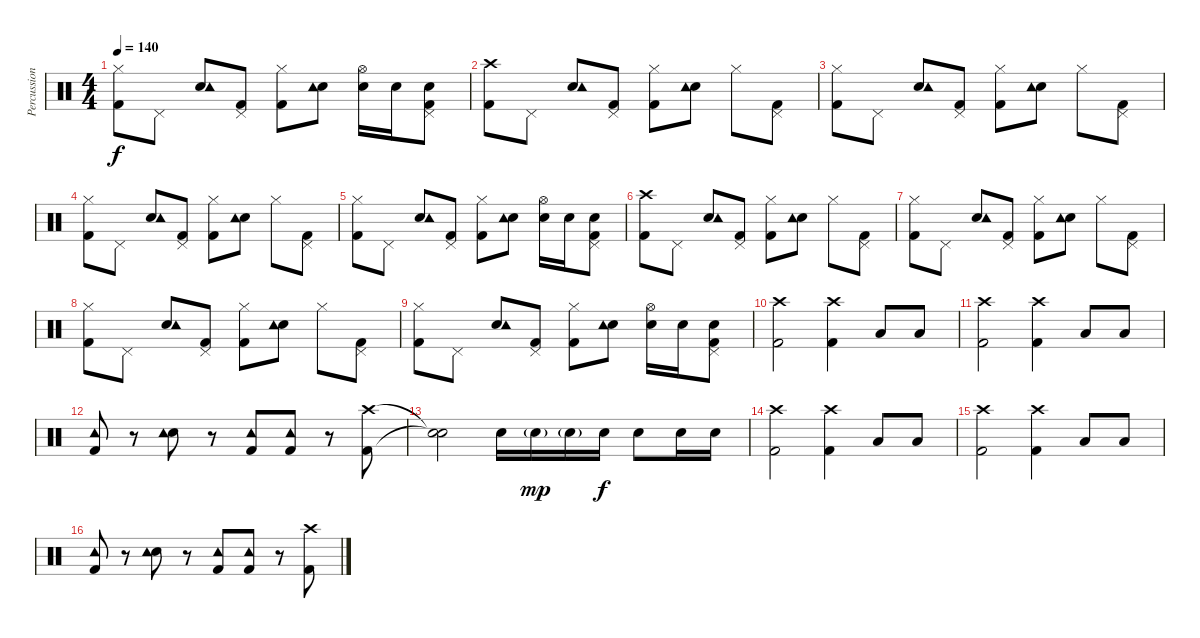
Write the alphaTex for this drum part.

\track ("Percussion" "Percussion") {instrument percussion}
\staff {score}
\articulation defaults
\ts (4 4)
\tempo 140
\clef neutral
\ks c
("Kick (hit) 2" "Hi-Hat (closed)").8{dy f} "Pedal Hi-Hat (hit)".8 ("Electric Snare (hit)" "Tambourine (hit)").8 ("Kick (hit) 2" "Pedal Hi-Hat (hit)").8 ("Kick (hit) 2" "Hi-Hat (closed)").8 ("Electric Snare (hit)" "Tambourine (hit)").8 ("Electric Snare (hit)" "Hi-Hat (open)").16 "Electric Snare (hit)".16 ("Kick (hit) 2" "Electric Snare (hit)" "Pedal Hi-Hat (hit)").8 |
("Kick (hit) 2" "Crash high (hit)").8 "Pedal Hi-Hat (hit)".8 ("Electric Snare (hit)" "Tambourine (hit)").8 ("Kick (hit) 2" "Pedal Hi-Hat (hit)").8 ("Kick (hit) 2" "Hi-Hat (closed)").8 ("Electric Snare (hit)" "Tambourine (hit)").8 "Hi-Hat (closed)".8 ("Kick (hit) 2" "Pedal Hi-Hat (hit)").8 |
("Kick (hit) 2" "Hi-Hat (closed)").8 "Pedal Hi-Hat (hit)".8 ("Electric Snare (hit)" "Tambourine (hit)").8 ("Kick (hit) 2" "Pedal Hi-Hat (hit)").8 ("Kick (hit) 2" "Hi-Hat (closed)").8 ("Electric Snare (hit)" "Tambourine (hit)").8 "Hi-Hat (closed)".8 ("Kick (hit) 2" "Pedal Hi-Hat (hit)").8 |
("Kick (hit) 2" "Hi-Hat (closed)").8 "Pedal Hi-Hat (hit)".8 ("Electric Snare (hit)" "Tambourine (hit)").8 ("Kick (hit) 2" "Pedal Hi-Hat (hit)").8 ("Kick (hit) 2" "Hi-Hat (closed)").8 ("Electric Snare (hit)" "Tambourine (hit)").8 "Hi-Hat (closed)".8 ("Kick (hit) 2" "Pedal Hi-Hat (hit)").8 |
("Kick (hit) 2" "Hi-Hat (closed)").8 "Pedal Hi-Hat (hit)".8 ("Electric Snare (hit)" "Tambourine (hit)").8 ("Kick (hit) 2" "Pedal Hi-Hat (hit)").8 ("Kick (hit) 2" "Hi-Hat (closed)").8 ("Electric Snare (hit)" "Tambourine (hit)").8 ("Electric Snare (hit)" "Hi-Hat (open)").16 "Electric Snare (hit)".16 ("Kick (hit) 2" "Electric Snare (hit)" "Pedal Hi-Hat (hit)").8 |
("Kick (hit) 2" "Crash high (hit)").8 "Pedal Hi-Hat (hit)".8 ("Electric Snare (hit)" "Tambourine (hit)").8 ("Kick (hit) 2" "Pedal Hi-Hat (hit)").8 ("Kick (hit) 2" "Hi-Hat (closed)").8 ("Electric Snare (hit)" "Tambourine (hit)").8 "Hi-Hat (closed)".8 ("Kick (hit) 2" "Pedal Hi-Hat (hit)").8 |
("Kick (hit) 2" "Hi-Hat (closed)").8 "Pedal Hi-Hat (hit)".8 ("Electric Snare (hit)" "Tambourine (hit)").8 ("Kick (hit) 2" "Pedal Hi-Hat (hit)").8 ("Kick (hit) 2" "Hi-Hat (closed)").8 ("Electric Snare (hit)" "Tambourine (hit)").8 "Hi-Hat (closed)".8 ("Kick (hit) 2" "Pedal Hi-Hat (hit)").8 |
("Kick (hit) 2" "Hi-Hat (closed)").8 "Pedal Hi-Hat (hit)".8 ("Electric Snare (hit)" "Tambourine (hit)").8 ("Kick (hit) 2" "Pedal Hi-Hat (hit)").8 ("Kick (hit) 2" "Hi-Hat (closed)").8 ("Electric Snare (hit)" "Tambourine (hit)").8 "Hi-Hat (closed)".8 ("Kick (hit) 2" "Pedal Hi-Hat (hit)").8 |
("Kick (hit) 2" "Hi-Hat (closed)").8 "Pedal Hi-Hat (hit)".8 ("Electric Snare (hit)" "Tambourine (hit)").8 ("Kick (hit) 2" "Pedal Hi-Hat (hit)").8 ("Kick (hit) 2" "Hi-Hat (closed)").8 ("Electric Snare (hit)" "Tambourine (hit)").8 ("Electric Snare (hit)" "Hi-Hat (open)").16 "Electric Snare (hit)".16 ("Kick (hit) 2" "Electric Snare (hit)" "Pedal Hi-Hat (hit)").8 |
("Kick (hit) 2" "Crash high (hit)").2 ("Kick (hit) 2" "Crash high (hit)").4 "Low Tom (hit)".8 "Low Tom (hit)".8 |
("Kick (hit) 2" "Crash high (hit)").2 ("Kick (hit) 2" "Crash high (hit)").4 "Low Floor Tom (hit)".8 "Low Tom (hit)".8 |
("Kick (hit) 2" "Tambourine (hit)").8 r.8 ("Electric Snare (hit)" "Tambourine (hit)").8 r.8 ("Kick (hit) 2" "Tambourine (hit)").8 ("Kick (hit) 2" "Tambourine (hit)").8 r.8 ("Kick (hit) 2" "Crash high (hit)").8 |
("Snare (hit)"{t} "Snare (hit)"{t}).2 "Electric Snare (hit)".16 "Electric Snare (hit)"{g}.16{dy mp} "Electric Snare (hit)"{g}.16 "Electric Snare (hit)".16{dy f} "Electric Snare (hit)".8 "Electric Snare (hit)".16 "Electric Snare (hit)".16 |
("Kick (hit) 2" "Crash high (hit)").2 ("Kick (hit) 2" "Crash high (hit)").4 "Low Tom (hit)".8 "Low Tom (hit)".8 |
("Kick (hit) 2" "Crash high (hit)").2 ("Kick (hit) 2" "Crash high (hit)").4 "Low Floor Tom (hit)".8 "Low Tom (hit)".8 |
("Kick (hit) 2" "Tambourine (hit)").8 r.8 ("Electric Snare (hit)" "Tambourine (hit)").8 r.8 ("Kick (hit) 2" "Tambourine (hit)").8 ("Kick (hit) 2" "Tambourine (hit)").8 r.8 ("Kick (hit) 2" "Crash high (hit)").8
